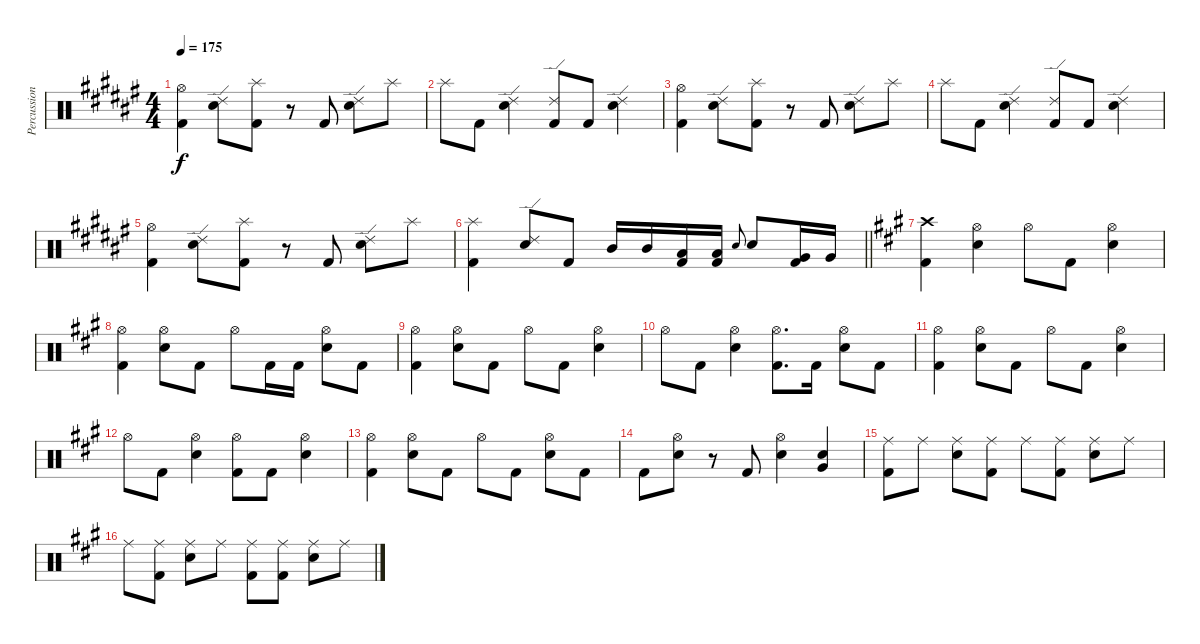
\track ("Percussions" "Percussion") {instrument percussion}
\staff {score}
\articulation defaults
\ts (4 4)
\tempo 175
\clef neutral
\ks f#
("Hi-Hat (open)" "Kick (hit) 2").4{dy f} ("Ride (edge) 2" "Snare (hit) 2").8 ("Splash (hit)" "Kick (hit) 2").8 r.8 "Kick (hit) 2".8 ("Ride (edge) 2" "Snare (hit) 2").8 "Splash (hit)".8 |
"Splash (hit)".8 "Kick (hit) 2".8 ("Ride (edge) 2" "Snare (hit) 2").4 ("Ride (edge) 2" "Kick (hit) 2").8 "Kick (hit) 2".8 ("Ride (edge) 2" "Snare (hit) 2").4 |
("Hi-Hat (open)" "Kick (hit) 2").4 ("Ride (edge) 2" "Snare (hit) 2").8 ("Splash (hit)" "Kick (hit) 2").8 r.8 "Kick (hit) 2".8 ("Ride (edge) 2" "Snare (hit) 2").8 "Splash (hit)".8 |
"Splash (hit)".8 "Kick (hit) 2".8 ("Ride (edge) 2" "Snare (hit) 2").4 ("Ride (edge) 2" "Kick (hit) 2").8 "Kick (hit) 2".8 ("Ride (edge) 2" "Snare (hit) 2").4 |
("Hi-Hat (open)" "Kick (hit) 2").4 ("Ride (edge) 2" "Snare (hit) 2").8 ("Splash (hit)" "Kick (hit) 2").8 r.8 "Kick (hit) 2".8 ("Ride (edge) 2" "Snare (hit) 2").8 "Splash (hit)".8 |
\barLineRight lightlight
("Splash (hit)" "Kick (hit) 2").4 ("Ride (edge) 2" "Snare (hit) 2").8 "Kick (hit) 2".8 "Mid Tom (hit)".16 "Mid Tom (hit)".16 ("Low Tom (hit)" "Kick (hit) 2").16 ("Low Tom (hit)" "Kick (hit) 2").16 "Snare (hit) 2".8{gr onbeat} "Snare (hit) 2".8 ("Very Low Tom (hit)" "Kick (hit) 2").16 "Very Low Tom (hit)".16 |
\ks f#minor
("Crash high (hit)" "Kick (hit) 2").4 ("Hi-Hat (open)" "Snare (hit) 2").4 "Hi-Hat (open)".8 "Kick (hit) 2".8 ("Hi-Hat (open)" "Snare (hit) 2").4 |
("Hi-Hat (open)" "Kick (hit) 2").4 ("Hi-Hat (open)" "Snare (hit) 2").8 "Kick (hit) 2".8 "Hi-Hat (open)".8 "Kick (hit) 2".16 "Kick (hit) 2".16 ("Hi-Hat (open)" "Snare (hit) 2").8 "Kick (hit) 2".8 |
("Hi-Hat (open)" "Kick (hit) 2").4 ("Hi-Hat (open)" "Snare (hit) 2").8 "Kick (hit) 2".8 "Hi-Hat (open)".8 "Kick (hit) 2".8 ("Hi-Hat (open)" "Snare (hit) 2").4 |
"Hi-Hat (open)".8 "Kick (hit) 2".8 ("Hi-Hat (open)" "Snare (hit) 2").4 ("Hi-Hat (open)" "Kick (hit) 2").8{d} "Kick (hit) 2".16 ("Hi-Hat (open)" "Snare (hit) 2").8 "Kick (hit) 2".8 |
("Hi-Hat (open)" "Kick (hit) 2").4 ("Hi-Hat (open)" "Snare (hit) 2").8 "Kick (hit) 2".8 "Hi-Hat (open)".8 "Kick (hit) 2".8 ("Hi-Hat (open)" "Snare (hit) 2").4 |
"Hi-Hat (open)".8 "Kick (hit) 2".8 ("Hi-Hat (open)" "Snare (hit) 2").4 ("Hi-Hat (open)" "Kick (hit) 2").8 "Kick (hit) 2".8 ("Hi-Hat (open)" "Snare (hit) 2").4 |
("Hi-Hat (open)" "Kick (hit) 2").4 ("Hi-Hat (open)" "Snare (hit) 2").8 "Kick (hit) 2".8 "Hi-Hat (open)".8 "Kick (hit) 2".8 ("Hi-Hat (open)" "Snare (hit) 2").8 "Kick (hit) 2".8 |
"Kick (hit) 2".8 ("Hi-Hat (open)" "Snare (hit) 2").8 r.8 "Kick (hit) 2".8 ("Hi-Hat (open)" "Snare (hit) 2").4 ("Snare (hit) 2" "Very Low Tom (hit)").4 |
("Ride (middle)" "Kick (hit) 2").8 "Ride (middle)".8 ("Ride (middle)" "Snare (hit) 2").8 ("Ride (middle)" "Kick (hit) 2").8 "Ride (middle)".8 ("Ride (middle)" "Kick (hit) 2").8 ("Ride (middle)" "Snare (hit) 2").8 "Ride (middle)".8 |
"Ride (middle)".8 ("Ride (middle)" "Kick (hit) 2").8 ("Ride (middle)" "Snare (hit) 2").8 "Ride (middle)".8 ("Ride (middle)" "Kick (hit) 2").8 ("Ride (middle)" "Kick (hit) 2").8 ("Ride (middle)" "Snare (hit) 2").8 "Ride (middle)".8
